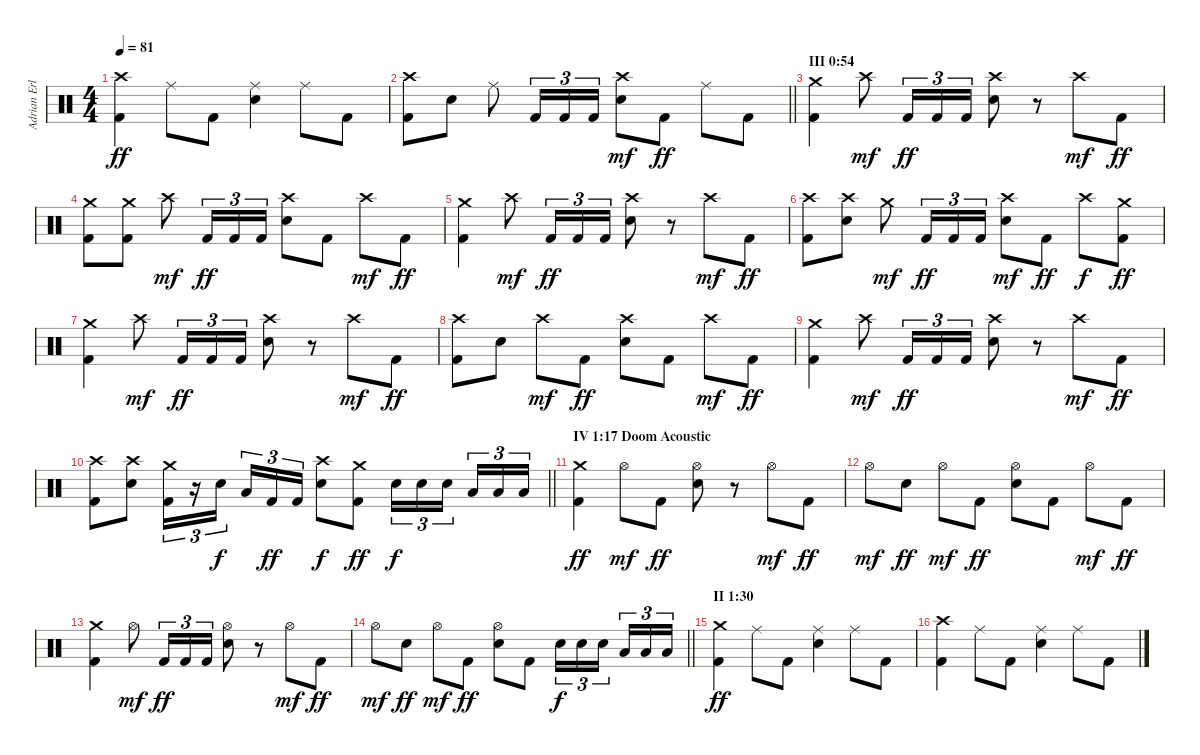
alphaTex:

\track ("Adrian Erlandsson (drums)" "Adrian Erl") {instrument percussion}
\staff {score}
\articulation defaults
\ts (4 4)
\tempo 81
\clef neutral
\ks c
("Crash high (hit)" "Kick (hit) 2").4{dy ff} "Ride (middle)".8 "Kick (hit) 2".8 ("Ride (middle)" "Electric Snare (hit)").4 "Ride (middle)".8 "Kick (hit) 2".8 |
\barLineRight lightlight
("Crash high (hit)" "Kick (hit) 2").8 "Electric Snare (hit)".8 "Ride (middle)".8 "Kick (hit) 2".16{tu (3 2)} "Kick (hit) 2".16{tu (3 2)} "Kick (hit) 2".16{tu (3 2)} ("Crash high (hit)" "Electric Snare (hit)").8{dy mf} "Kick (hit) 2".8{dy ff} "Ride (middle)".8 "Kick (hit) 2".8 |
\section ("" "III 0:54")
("Crash medium (hit)" "Kick (hit) 2").4 "Crash high (hit)".8{dy mf} "Kick (hit) 2".16{tu (3 2) dy ff} "Kick (hit) 2".16{tu (3 2)} "Kick (hit) 2".16{tu (3 2)} ("Crash high (hit)" "Electric Snare (hit)").8 r.8 "Crash high (hit)".8{dy mf} "Kick (hit) 2".8{dy ff} |
("Crash medium (hit)" "Kick (hit) 2").8 ("Crash medium (hit)" "Kick (hit) 2").8 "Crash high (hit)".8{dy mf} "Kick (hit) 2".16{tu (3 2) dy ff} "Kick (hit) 2".16{tu (3 2)} "Kick (hit) 2".16{tu (3 2)} ("Crash high (hit)" "Electric Snare (hit)").8 "Kick (hit) 2".8 "Crash high (hit)".8{dy mf} "Kick (hit) 2".8{dy ff} |
("Crash medium (hit)" "Kick (hit) 2").4 "Crash high (hit)".8{dy mf} "Kick (hit) 2".16{tu (3 2) dy ff} "Kick (hit) 2".16{tu (3 2)} "Kick (hit) 2".16{tu (3 2)} ("Crash high (hit)" "Electric Snare (hit)").8 r.8 "Crash high (hit)".8{dy mf} "Kick (hit) 2".8{dy ff} |
("Crash high (hit)" "Kick (hit) 2").8 ("Crash high (hit)" "Electric Snare (hit)").8 "Crash medium (hit)".8{dy mf} "Kick (hit) 2".16{tu (3 2) dy ff} "Kick (hit) 2".16{tu (3 2)} "Kick (hit) 2".16{tu (3 2)} ("Crash high (hit)" "Electric Snare (hit)").8{dy mf} "Kick (hit) 2".8{dy ff} "Crash high (hit)".8{dy f} ("Crash medium (hit)" "Kick (hit) 2").8{dy ff} |
("Crash medium (hit)" "Kick (hit) 2").4 "Crash high (hit)".8{dy mf} "Kick (hit) 2".16{tu (3 2) dy ff} "Kick (hit) 2".16{tu (3 2)} "Kick (hit) 2".16{tu (3 2)} ("Crash high (hit)" "Electric Snare (hit)").8 r.8 "Crash high (hit)".8{dy mf} "Kick (hit) 2".8{dy ff} |
("Crash high (hit)" "Kick (hit) 2").8 "Electric Snare (hit)".8 "Crash high (hit)".8{dy mf} "Kick (hit) 2".8{dy ff} ("Crash high (hit)" "Electric Snare (hit)").8 "Kick (hit) 2".8 "Crash high (hit)".8{dy mf} "Kick (hit) 2".8{dy ff} |
("Crash medium (hit)" "Kick (hit) 2").4 "Crash high (hit)".8{dy mf} "Kick (hit) 2".16{tu (3 2) dy ff} "Kick (hit) 2".16{tu (3 2)} "Kick (hit) 2".16{tu (3 2)} ("Crash high (hit)" "Electric Snare (hit)").8 r.8 "Crash high (hit)".8{dy mf} "Kick (hit) 2".8{dy ff} |
\barLineRight lightlight
("Crash high (hit)" "Kick (hit) 2").8 ("Crash high (hit)" "Electric Snare (hit)").8 ("Crash medium (hit)" "Kick (hit) 2").16{tu (3 2)} r.16{tu (3 2)} "Electric Snare (hit)".16{tu (3 2) dy f beam splitsecondary} "Low Tom (hit)".16{tu (3 2)} "Kick (hit) 2".16{tu (3 2) dy ff} "Kick (hit) 2".16{tu (3 2)} ("Crash high (hit)" "Electric Snare (hit)").8{dy f} ("Crash medium (hit)" "Kick (hit) 2").8{dy ff} "Electric Snare (hit)".16{tu (3 2) dy f} "Electric Snare (hit)".16{tu (3 2)} "Electric Snare (hit)".16{tu (3 2) beam splitsecondary} "Low Tom (hit)".16{tu (3 2)} "Low Tom (hit)".16{tu (3 2)} "Low Tom (hit)".16{tu (3 2)} |
\section ("" "IV 1:17 Doom Acoustic")
("Crash medium (hit)" "Kick (hit) 2").4{dy ff} "Hi-Hat (open)".8{dy mf} "Kick (hit) 2".8{dy ff} ("Hi-Hat (open)" "Electric Snare (hit)").8 r.8 "Hi-Hat (open)".8{dy mf} "Kick (hit) 2".8{dy ff} |
"Hi-Hat (open)".8{dy mf} "Electric Snare (hit)".8{dy ff} "Hi-Hat (open)".8{dy mf} "Kick (hit) 2".8{dy ff} ("Hi-Hat (open)" "Electric Snare (hit)").8 "Kick (hit) 2".8 "Hi-Hat (open)".8{dy mf} "Kick (hit) 2".8{dy ff} |
("Crash medium (hit)" "Kick (hit) 2").4 "Hi-Hat (open)".8{dy mf} "Kick (hit) 2".16{tu (3 2) dy ff} "Kick (hit) 2".16{tu (3 2)} "Kick (hit) 2".16{tu (3 2)} ("Hi-Hat (open)" "Electric Snare (hit)").8 r.8 "Hi-Hat (open)".8{dy mf} "Kick (hit) 2".8{dy ff} |
\barLineRight lightlight "Hi-Hat (open)".8{dy mf} "Electric Snare (hit)".8{dy ff} "Hi-Hat (open)".8{dy mf} "Kick (hit) 2".8{dy ff}
("Hi-Hat (open)" "Electric Snare (hit)").8 "Kick (hit) 2".8 "Electric Snare (hit)".16{tu (3 2) dy f} "Electric Snare (hit)".16{tu (3 2)} "Electric Snare (hit)".16{tu (3 2) beam splitsecondary} "Low Tom (hit)".16{tu (3 2)} "Low Tom (hit)".16{tu (3 2)} "Low Tom (hit)".16{tu (3 2)} |
\section ("" "II 1:30")
("Crash medium (hit)" "Kick (hit) 2").4{dy ff} "Ride (middle)".8 "Kick (hit) 2".8 ("Ride (middle)" "Electric Snare (hit)").4 "Ride (middle)".8 "Kick (hit) 2".8 |
("Crash high (hit)" "Kick (hit) 2").4 "Ride (middle)".8 "Kick (hit) 2".8 ("Ride (middle)" "Electric Snare (hit)").4 "Ride (middle)".8 "Kick (hit) 2".8
